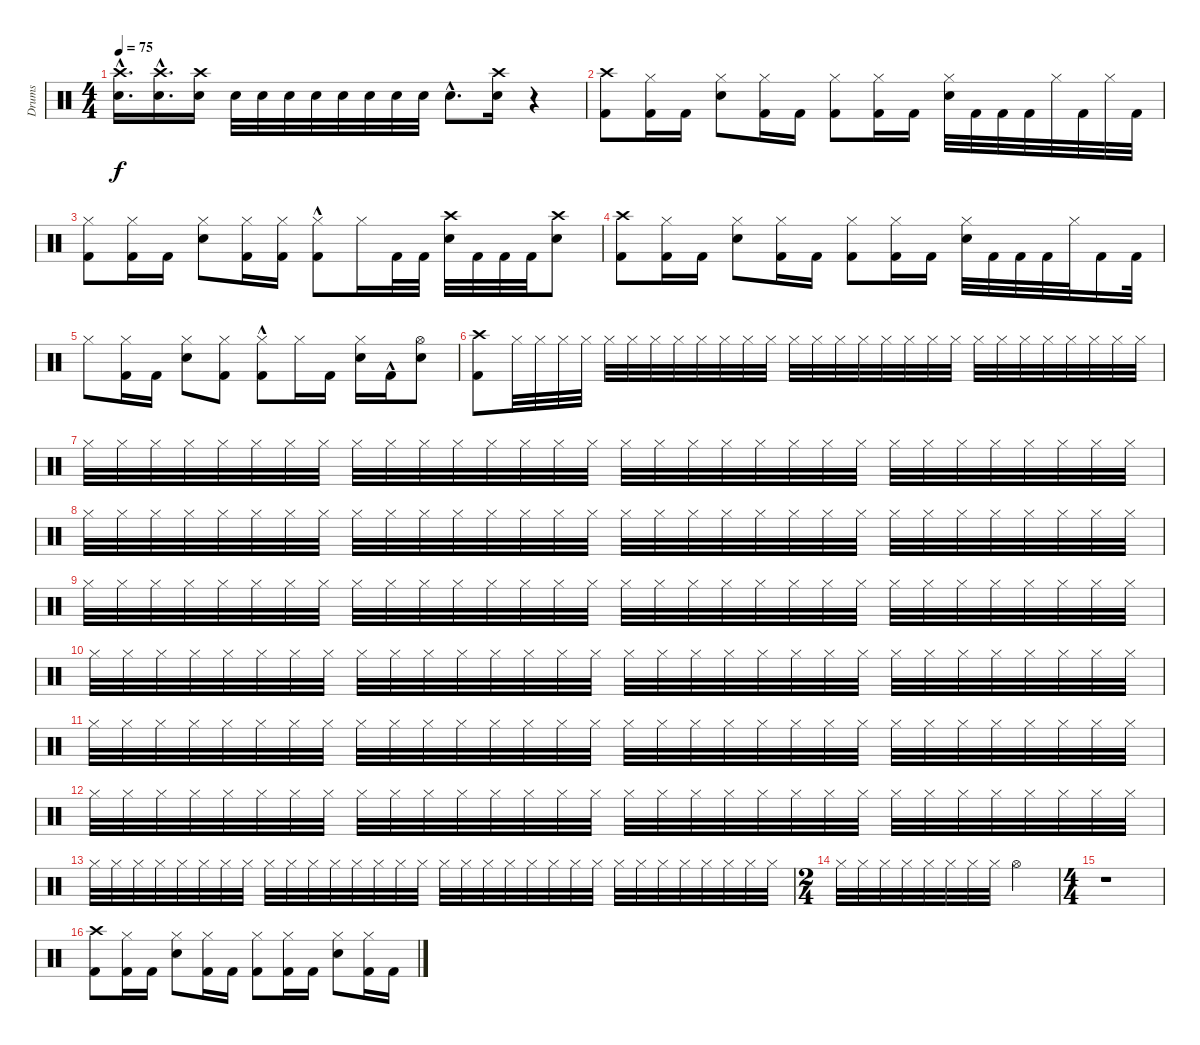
\track ("Drums" "Drums") {instrument percussion}
\staff {score}
\articulation defaults
\ts (4 4)
\tempo 75
\clef neutral
\ks c
("Snare (hit) 2"{hac} "Crash high (hit)"{hac}).16{d dy f} ("Snare (hit) 2"{hac} "Crash high (hit)"{hac}).16{d} ("Snare (hit) 2" "Crash high (hit)").16 "Snare (hit) 2".32 "Snare (hit) 2".32 "Snare (hit) 2".32 "Snare (hit) 2".32 "Snare (hit) 2".32 "Snare (hit) 2".32 "Snare (hit) 2".32 "Snare (hit) 2".32 "Snare (hit) 2"{hac}.8{d} ("Snare (hit) 2" "Crash high (hit)").16 r.4 |
("Crash high (hit)" "Kick (hit) 2").8 ("Hi-Hat (closed)" "Kick (hit) 2").16 "Kick (hit) 2".16 ("Hi-Hat (closed)" "Snare (hit) 2").8 ("Hi-Hat (closed)" "Kick (hit) 2").16 "Kick (hit) 2".16 ("Hi-Hat (closed)" "Kick (hit) 2").8 ("Hi-Hat (closed)" "Kick (hit) 2").16 "Kick (hit) 2".16 ("Snare (hit) 2" "Hi-Hat (closed)").32 "Kick (hit) 2".32 "Kick (hit) 2".32 "Kick (hit) 2".32 "Hi-Hat (closed)".32 "Kick (hit) 2".32 "Hi-Hat (closed)".32 "Kick (hit) 2".32 |
("Hi-Hat (closed)" "Kick (hit) 2").8 ("Hi-Hat (closed)" "Kick (hit) 2").16 "Kick (hit) 2".16 ("Hi-Hat (closed)" "Snare (hit) 2").8 ("Hi-Hat (closed)" "Kick (hit) 2").16 ("Hi-Hat (closed)" "Kick (hit) 2").16 ("Hi-Hat (closed)" "Kick (hit) 2"{hac}).8 "Hi-Hat (closed)".16 "Kick (hit) 2".32 "Kick (hit) 2".32 ("Crash high (hit)" "Snare (hit) 2").32 "Kick (hit) 2".32 "Kick (hit) 2".32 "Kick (hit) 2".32 ("Crash high (hit)" "Snare (hit) 2").8 |
("Crash high (hit)" "Kick (hit) 2").8 ("Hi-Hat (closed)" "Kick (hit) 2").16 "Kick (hit) 2".16 ("Hi-Hat (closed)" "Snare (hit) 2").8 ("Hi-Hat (closed)" "Kick (hit) 2").16 "Kick (hit) 2".16 ("Hi-Hat (closed)" "Kick (hit) 2").8 ("Hi-Hat (closed)" "Kick (hit) 2").16 "Kick (hit) 2".16 ("Snare (hit) 2" "Hi-Hat (closed)").32 "Kick (hit) 2".32 "Kick (hit) 2".32 "Kick (hit) 2".32 "Hi-Hat (closed)".32 "Kick (hit) 2".16 "Kick (hit) 2".32 |
"Hi-Hat (closed)".8 ("Hi-Hat (closed)" "Kick (hit) 2").16 "Kick (hit) 2".16 ("Hi-Hat (closed)" "Snare (hit) 2").8 ("Hi-Hat (closed)" "Kick (hit) 2").8 ("Hi-Hat (closed)" "Kick (hit) 2"{hac}).8 "Hi-Hat (closed)".16 "Kick (hit) 2".16 ("Hi-Hat (closed)" "Snare (hit) 2").16 "Kick (hit) 2"{hac}.16 ("Hi-Hat (open)" "Snare (hit) 2").8 |
("Kick (hit) 2" "Crash high (hit)").8 "Hi-Hat (closed)".32 "Hi-Hat (closed)".32 "Hi-Hat (closed)".32 "Hi-Hat (closed)".32 "Hi-Hat (closed)".32 "Hi-Hat (closed)".32 "Hi-Hat (closed)".32 "Hi-Hat (closed)".32 "Hi-Hat (closed)".32 "Hi-Hat (closed)".32 "Hi-Hat (closed)".32 "Hi-Hat (closed)".32 "Hi-Hat (closed)".32 "Hi-Hat (closed)".32 "Hi-Hat (closed)".32 "Hi-Hat (closed)".32 "Hi-Hat (closed)".32 "Hi-Hat (closed)".32 "Hi-Hat (closed)".32 "Hi-Hat (closed)".32 "Hi-Hat (closed)".32 "Hi-Hat (closed)".32 "Hi-Hat (closed)".32 "Hi-Hat (closed)".32 "Hi-Hat (closed)".32 "Hi-Hat (closed)".32 "Hi-Hat (closed)".32 "Hi-Hat (closed)".32 |
"Hi-Hat (closed)".32 "Hi-Hat (closed)".32 "Hi-Hat (closed)".32 "Hi-Hat (closed)".32 "Hi-Hat (closed)".32 "Hi-Hat (closed)".32 "Hi-Hat (closed)".32 "Hi-Hat (closed)".32 "Hi-Hat (closed)".32 "Hi-Hat (closed)".32 "Hi-Hat (closed)".32 "Hi-Hat (closed)".32 "Hi-Hat (closed)".32 "Hi-Hat (closed)".32 "Hi-Hat (closed)".32 "Hi-Hat (closed)".32 "Hi-Hat (closed)".32 "Hi-Hat (closed)".32 "Hi-Hat (closed)".32 "Hi-Hat (closed)".32 "Hi-Hat (closed)".32 "Hi-Hat (closed)".32 "Hi-Hat (closed)".32 "Hi-Hat (closed)".32 "Hi-Hat (closed)".32 "Hi-Hat (closed)".32 "Hi-Hat (closed)".32 "Hi-Hat (closed)".32 "Hi-Hat (closed)".32 "Hi-Hat (closed)".32 "Hi-Hat (closed)".32 "Hi-Hat (closed)".32 |
"Hi-Hat (closed)".32 "Hi-Hat (closed)".32 "Hi-Hat (closed)".32 "Hi-Hat (closed)".32 "Hi-Hat (closed)".32 "Hi-Hat (closed)".32 "Hi-Hat (closed)".32 "Hi-Hat (closed)".32 "Hi-Hat (closed)".32 "Hi-Hat (closed)".32 "Hi-Hat (closed)".32 "Hi-Hat (closed)".32 "Hi-Hat (closed)".32 "Hi-Hat (closed)".32 "Hi-Hat (closed)".32 "Hi-Hat (closed)".32 "Hi-Hat (closed)".32 "Hi-Hat (closed)".32 "Hi-Hat (closed)".32 "Hi-Hat (closed)".32 "Hi-Hat (closed)".32 "Hi-Hat (closed)".32 "Hi-Hat (closed)".32 "Hi-Hat (closed)".32 "Hi-Hat (closed)".32 "Hi-Hat (closed)".32 "Hi-Hat (closed)".32 "Hi-Hat (closed)".32 "Hi-Hat (closed)".32 "Hi-Hat (closed)".32 "Hi-Hat (closed)".32 "Hi-Hat (closed)".32 |
"Hi-Hat (closed)".32 "Hi-Hat (closed)".32 "Hi-Hat (closed)".32 "Hi-Hat (closed)".32 "Hi-Hat (closed)".32 "Hi-Hat (closed)".32 "Hi-Hat (closed)".32 "Hi-Hat (closed)".32 "Hi-Hat (closed)".32 "Hi-Hat (closed)".32 "Hi-Hat (closed)".32 "Hi-Hat (closed)".32 "Hi-Hat (closed)".32 "Hi-Hat (closed)".32 "Hi-Hat (closed)".32 "Hi-Hat (closed)".32 "Hi-Hat (closed)".32 "Hi-Hat (closed)".32 "Hi-Hat (closed)".32 "Hi-Hat (closed)".32 "Hi-Hat (closed)".32 "Hi-Hat (closed)".32 "Hi-Hat (closed)".32 "Hi-Hat (closed)".32 "Hi-Hat (closed)".32 "Hi-Hat (closed)".32 "Hi-Hat (closed)".32 "Hi-Hat (closed)".32 "Hi-Hat (closed)".32 "Hi-Hat (closed)".32 "Hi-Hat (closed)".32 "Hi-Hat (closed)".32 |
"Hi-Hat (closed)".32 "Hi-Hat (closed)".32 "Hi-Hat (closed)".32 "Hi-Hat (closed)".32 "Hi-Hat (closed)".32 "Hi-Hat (closed)".32 "Hi-Hat (closed)".32 "Hi-Hat (closed)".32 "Hi-Hat (closed)".32 "Hi-Hat (closed)".32 "Hi-Hat (closed)".32 "Hi-Hat (closed)".32 "Hi-Hat (closed)".32 "Hi-Hat (closed)".32 "Hi-Hat (closed)".32 "Hi-Hat (closed)".32 "Hi-Hat (closed)".32 "Hi-Hat (closed)".32 "Hi-Hat (closed)".32 "Hi-Hat (closed)".32 "Hi-Hat (closed)".32 "Hi-Hat (closed)".32 "Hi-Hat (closed)".32 "Hi-Hat (closed)".32 "Hi-Hat (closed)".32 "Hi-Hat (closed)".32 "Hi-Hat (closed)".32 "Hi-Hat (closed)".32 "Hi-Hat (closed)".32 "Hi-Hat (closed)".32 "Hi-Hat (closed)".32 "Hi-Hat (closed)".32 |
"Hi-Hat (closed)".32 "Hi-Hat (closed)".32 "Hi-Hat (closed)".32 "Hi-Hat (closed)".32 "Hi-Hat (closed)".32 "Hi-Hat (closed)".32 "Hi-Hat (closed)".32 "Hi-Hat (closed)".32 "Hi-Hat (closed)".32 "Hi-Hat (closed)".32 "Hi-Hat (closed)".32 "Hi-Hat (closed)".32 "Hi-Hat (closed)".32 "Hi-Hat (closed)".32 "Hi-Hat (closed)".32 "Hi-Hat (closed)".32 "Hi-Hat (closed)".32 "Hi-Hat (closed)".32 "Hi-Hat (closed)".32 "Hi-Hat (closed)".32 "Hi-Hat (closed)".32 "Hi-Hat (closed)".32 "Hi-Hat (closed)".32 "Hi-Hat (closed)".32 "Hi-Hat (closed)".32 "Hi-Hat (closed)".32 "Hi-Hat (closed)".32 "Hi-Hat (closed)".32 "Hi-Hat (closed)".32 "Hi-Hat (closed)".32 "Hi-Hat (closed)".32 "Hi-Hat (closed)".32 |
"Hi-Hat (closed)".32 "Hi-Hat (closed)".32 "Hi-Hat (closed)".32 "Hi-Hat (closed)".32 "Hi-Hat (closed)".32 "Hi-Hat (closed)".32 "Hi-Hat (closed)".32 "Hi-Hat (closed)".32 "Hi-Hat (closed)".32 "Hi-Hat (closed)".32 "Hi-Hat (closed)".32 "Hi-Hat (closed)".32 "Hi-Hat (closed)".32 "Hi-Hat (closed)".32 "Hi-Hat (closed)".32 "Hi-Hat (closed)".32 "Hi-Hat (closed)".32 "Hi-Hat (closed)".32 "Hi-Hat (closed)".32 "Hi-Hat (closed)".32 "Hi-Hat (closed)".32 "Hi-Hat (closed)".32 "Hi-Hat (closed)".32 "Hi-Hat (closed)".32 "Hi-Hat (closed)".32 "Hi-Hat (closed)".32 "Hi-Hat (closed)".32 "Hi-Hat (closed)".32 "Hi-Hat (closed)".32 "Hi-Hat (closed)".32 "Hi-Hat (closed)".32 "Hi-Hat (closed)".32 |
"Hi-Hat (closed)".32 "Hi-Hat (closed)".32 "Hi-Hat (closed)".32 "Hi-Hat (closed)".32 "Hi-Hat (closed)".32 "Hi-Hat (closed)".32 "Hi-Hat (closed)".32 "Hi-Hat (closed)".32 "Hi-Hat (closed)".32 "Hi-Hat (closed)".32 "Hi-Hat (closed)".32 "Hi-Hat (closed)".32 "Hi-Hat (closed)".32 "Hi-Hat (closed)".32 "Hi-Hat (closed)".32 "Hi-Hat (closed)".32 "Hi-Hat (closed)".32 "Hi-Hat (closed)".32 "Hi-Hat (closed)".32 "Hi-Hat (closed)".32 "Hi-Hat (closed)".32 "Hi-Hat (closed)".32 "Hi-Hat (closed)".32 "Hi-Hat (closed)".32 "Hi-Hat (closed)".32 "Hi-Hat (closed)".32 "Hi-Hat (closed)".32 "Hi-Hat (closed)".32 "Hi-Hat (closed)".32 "Hi-Hat (closed)".32 "Hi-Hat (closed)".32 "Hi-Hat (closed)".32 |
\ts (2 4)
"Hi-Hat (closed)".32 "Hi-Hat (closed)".32 "Hi-Hat (closed)".32 "Hi-Hat (closed)".32 "Hi-Hat (closed)".32 "Hi-Hat (closed)".32 "Hi-Hat (closed)".32 "Hi-Hat (closed)".32 "Hi-Hat (open)".4 |
\ts (4 4)
r.1 |
("Crash high (hit)" "Kick (hit) 2").8 ("Hi-Hat (closed)" "Kick (hit) 2").16 "Kick (hit) 2".16 ("Hi-Hat (closed)" "Snare (hit) 2").8 ("Hi-Hat (closed)" "Kick (hit) 2").16 "Kick (hit) 2".16 ("Hi-Hat (closed)" "Kick (hit) 2").8 ("Hi-Hat (closed)" "Kick (hit) 2").16 "Kick (hit) 2".16 ("Hi-Hat (closed)" "Snare (hit) 2").8 ("Hi-Hat (closed)" "Kick (hit) 2").16 "Kick (hit) 2".16
